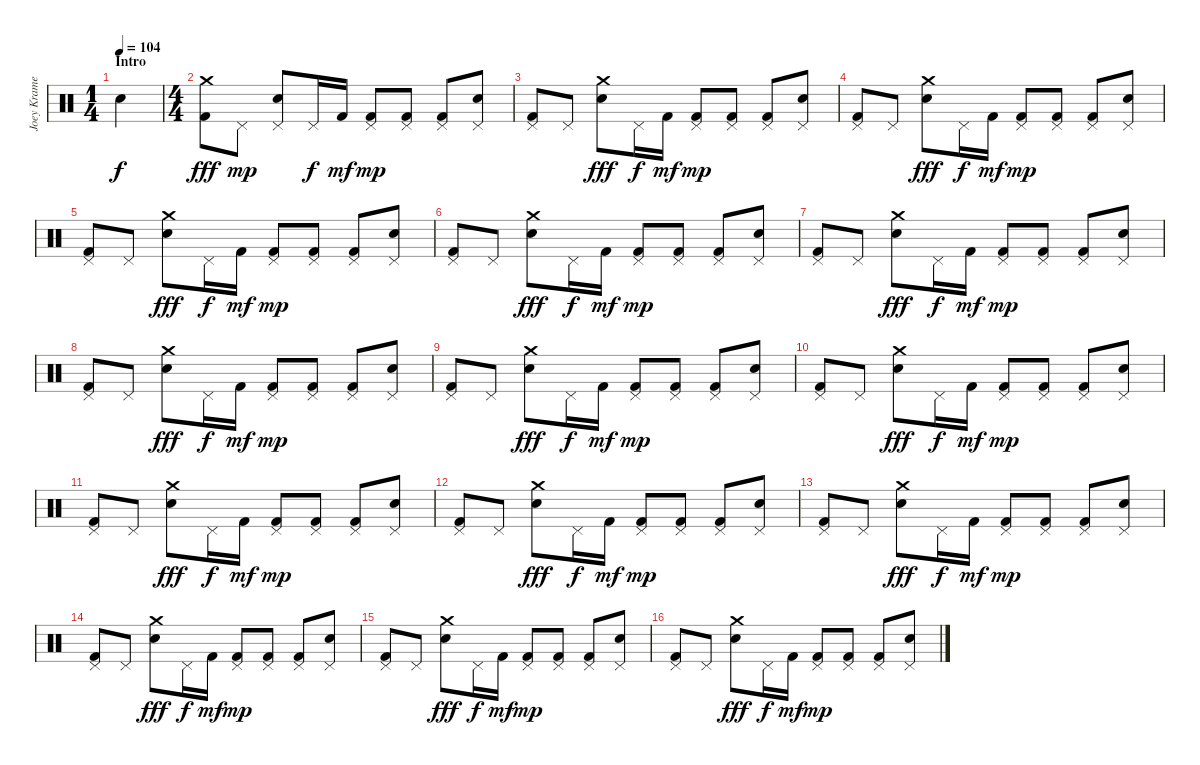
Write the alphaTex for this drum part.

\track ("Joey Kramer" "Joey Krame") {instrument percussion}
\staff {score}
\articulation defaults
\ts (1 4)
\section ("" "Intro")
\tempo 104
\clef neutral
\ks c "Snare (hit) 2".4{dy f}
|
\ts (4 4)
("Crash medium (hit)" "Kick (hit) 2").8{dy fff} "Pedal Hi-Hat (hit)".8{dy mp} ("Pedal Hi-Hat (hit)" "Snare (hit) 2").8 "Pedal Hi-Hat (hit)".16{dy f} "Kick (hit) 2".16{dy mf} ("Pedal Hi-Hat (hit)" "Kick (hit) 2").8{dy mp} ("Pedal Hi-Hat (hit)" "Kick (hit) 2").8 ("Pedal Hi-Hat (hit)" "Kick (hit) 2").8 ("Pedal Hi-Hat (hit)" "Snare (hit) 2").8 |
("Pedal Hi-Hat (hit)" "Kick (hit) 2").8 "Pedal Hi-Hat (hit)".8 ("Crash medium (hit)" "Snare (hit) 2").8{dy fff} "Pedal Hi-Hat (hit)".16{dy f} "Kick (hit) 2".16{dy mf} ("Pedal Hi-Hat (hit)" "Kick (hit) 2").8{dy mp} ("Pedal Hi-Hat (hit)" "Kick (hit) 2").8 ("Pedal Hi-Hat (hit)" "Kick (hit) 2").8 ("Pedal Hi-Hat (hit)" "Snare (hit) 2").8 |
("Pedal Hi-Hat (hit)" "Kick (hit) 2").8 "Pedal Hi-Hat (hit)".8 ("Crash medium (hit)" "Snare (hit) 2").8{dy fff} "Pedal Hi-Hat (hit)".16{dy f} "Kick (hit) 2".16{dy mf} ("Pedal Hi-Hat (hit)" "Kick (hit) 2").8{dy mp} ("Pedal Hi-Hat (hit)" "Kick (hit) 2").8 ("Pedal Hi-Hat (hit)" "Kick (hit) 2").8 ("Pedal Hi-Hat (hit)" "Snare (hit) 2").8 |
("Pedal Hi-Hat (hit)" "Kick (hit) 2").8 "Pedal Hi-Hat (hit)".8 ("Crash medium (hit)" "Snare (hit) 2").8{dy fff} "Pedal Hi-Hat (hit)".16{dy f} "Kick (hit) 2".16{dy mf} ("Pedal Hi-Hat (hit)" "Kick (hit) 2").8{dy mp} ("Pedal Hi-Hat (hit)" "Kick (hit) 2").8 ("Pedal Hi-Hat (hit)" "Kick (hit) 2").8 ("Pedal Hi-Hat (hit)" "Snare (hit) 2").8 |
("Pedal Hi-Hat (hit)" "Kick (hit) 2").8 "Pedal Hi-Hat (hit)".8 ("Crash medium (hit)" "Snare (hit) 2").8{dy fff} "Pedal Hi-Hat (hit)".16{dy f} "Kick (hit) 2".16{dy mf} ("Pedal Hi-Hat (hit)" "Kick (hit) 2").8{dy mp} ("Pedal Hi-Hat (hit)" "Kick (hit) 2").8 ("Pedal Hi-Hat (hit)" "Kick (hit) 2").8 ("Pedal Hi-Hat (hit)" "Snare (hit) 2").8 |
("Pedal Hi-Hat (hit)" "Kick (hit) 2").8 "Pedal Hi-Hat (hit)".8 ("Crash medium (hit)" "Snare (hit) 2").8{dy fff} "Pedal Hi-Hat (hit)".16{dy f} "Kick (hit) 2".16{dy mf} ("Pedal Hi-Hat (hit)" "Kick (hit) 2").8{dy mp} ("Pedal Hi-Hat (hit)" "Kick (hit) 2").8 ("Pedal Hi-Hat (hit)" "Kick (hit) 2").8 ("Pedal Hi-Hat (hit)" "Snare (hit) 2").8 |
("Pedal Hi-Hat (hit)" "Kick (hit) 2").8 "Pedal Hi-Hat (hit)".8 ("Crash medium (hit)" "Snare (hit) 2").8{dy fff} "Pedal Hi-Hat (hit)".16{dy f} "Kick (hit) 2".16{dy mf} ("Pedal Hi-Hat (hit)" "Kick (hit) 2").8{dy mp} ("Pedal Hi-Hat (hit)" "Kick (hit) 2").8 ("Pedal Hi-Hat (hit)" "Kick (hit) 2").8 ("Pedal Hi-Hat (hit)" "Snare (hit) 2").8 |
("Pedal Hi-Hat (hit)" "Kick (hit) 2").8 "Pedal Hi-Hat (hit)".8 ("Crash medium (hit)" "Snare (hit) 2").8{dy fff} "Pedal Hi-Hat (hit)".16{dy f} "Kick (hit) 2".16{dy mf} ("Pedal Hi-Hat (hit)" "Kick (hit) 2").8{dy mp} ("Pedal Hi-Hat (hit)" "Kick (hit) 2").8 ("Pedal Hi-Hat (hit)" "Kick (hit) 2").8 ("Pedal Hi-Hat (hit)" "Snare (hit) 2").8 |
("Pedal Hi-Hat (hit)" "Kick (hit) 2").8 "Pedal Hi-Hat (hit)".8 ("Crash medium (hit)" "Snare (hit) 2").8{dy fff} "Pedal Hi-Hat (hit)".16{dy f} "Kick (hit) 2".16{dy mf} ("Pedal Hi-Hat (hit)" "Kick (hit) 2").8{dy mp} ("Pedal Hi-Hat (hit)" "Kick (hit) 2").8 ("Pedal Hi-Hat (hit)" "Kick (hit) 2").8 ("Pedal Hi-Hat (hit)" "Snare (hit) 2").8 |
("Pedal Hi-Hat (hit)" "Kick (hit) 2").8 "Pedal Hi-Hat (hit)".8 ("Crash medium (hit)" "Snare (hit) 2").8{dy fff} "Pedal Hi-Hat (hit)".16{dy f} "Kick (hit) 2".16{dy mf} ("Pedal Hi-Hat (hit)" "Kick (hit) 2").8{dy mp} ("Pedal Hi-Hat (hit)" "Kick (hit) 2").8 ("Pedal Hi-Hat (hit)" "Kick (hit) 2").8 ("Pedal Hi-Hat (hit)" "Snare (hit) 2").8 |
("Pedal Hi-Hat (hit)" "Kick (hit) 2").8 "Pedal Hi-Hat (hit)".8 ("Crash medium (hit)" "Snare (hit) 2").8{dy fff} "Pedal Hi-Hat (hit)".16{dy f} "Kick (hit) 2".16{dy mf} ("Pedal Hi-Hat (hit)" "Kick (hit) 2").8{dy mp} ("Pedal Hi-Hat (hit)" "Kick (hit) 2").8 ("Pedal Hi-Hat (hit)" "Kick (hit) 2").8 ("Pedal Hi-Hat (hit)" "Snare (hit) 2").8 |
("Pedal Hi-Hat (hit)" "Kick (hit) 2").8 "Pedal Hi-Hat (hit)".8 ("Crash medium (hit)" "Snare (hit) 2").8{dy fff} "Pedal Hi-Hat (hit)".16{dy f} "Kick (hit) 2".16{dy mf} ("Pedal Hi-Hat (hit)" "Kick (hit) 2").8{dy mp} ("Pedal Hi-Hat (hit)" "Kick (hit) 2").8 ("Pedal Hi-Hat (hit)" "Kick (hit) 2").8 ("Pedal Hi-Hat (hit)" "Snare (hit) 2").8 |
("Pedal Hi-Hat (hit)" "Kick (hit) 2").8 "Pedal Hi-Hat (hit)".8 ("Crash medium (hit)" "Snare (hit) 2").8{dy fff} "Pedal Hi-Hat (hit)".16{dy f} "Kick (hit) 2".16{dy mf} ("Pedal Hi-Hat (hit)" "Kick (hit) 2").8{dy mp} ("Pedal Hi-Hat (hit)" "Kick (hit) 2").8 ("Pedal Hi-Hat (hit)" "Kick (hit) 2").8 ("Pedal Hi-Hat (hit)" "Snare (hit) 2").8 |
("Pedal Hi-Hat (hit)" "Kick (hit) 2").8 "Pedal Hi-Hat (hit)".8 ("Crash medium (hit)" "Snare (hit) 2").8{dy fff} "Pedal Hi-Hat (hit)".16{dy f} "Kick (hit) 2".16{dy mf} ("Pedal Hi-Hat (hit)" "Kick (hit) 2").8{dy mp} ("Pedal Hi-Hat (hit)" "Kick (hit) 2").8 ("Pedal Hi-Hat (hit)" "Kick (hit) 2").8 ("Pedal Hi-Hat (hit)" "Snare (hit) 2").8 |
("Pedal Hi-Hat (hit)" "Kick (hit) 2").8 "Pedal Hi-Hat (hit)".8 ("Crash medium (hit)" "Snare (hit) 2").8{dy fff} "Pedal Hi-Hat (hit)".16{dy f} "Kick (hit) 2".16{dy mf} ("Pedal Hi-Hat (hit)" "Kick (hit) 2").8{dy mp} ("Pedal Hi-Hat (hit)" "Kick (hit) 2").8 ("Pedal Hi-Hat (hit)" "Kick (hit) 2").8 ("Pedal Hi-Hat (hit)" "Snare (hit) 2").8
